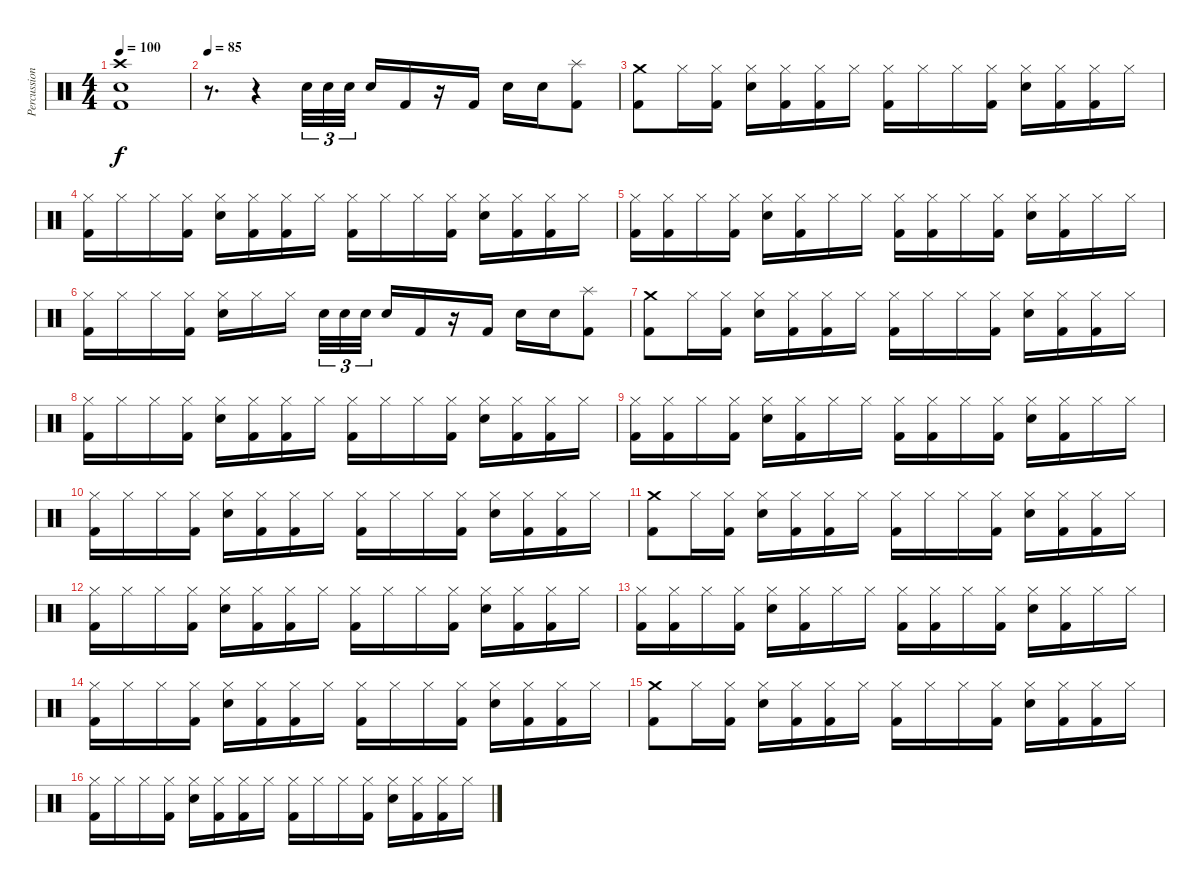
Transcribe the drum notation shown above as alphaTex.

\track ("Percussion" "Percussion") {instrument percussion}
\staff {score}
\articulation defaults
\ts (4 4)
\tempo 100
\clef neutral
\ks c
("Crash high (hit)" "Snare (hit) 2" "Kick (hit) 2").1{dy f} |
\tempo 85
r.8{d} r.4 "Electric Snare (hit)".32{tu (3 2)} "Electric Snare (hit)".32{tu (3 2)} "Electric Snare (hit)".32{tu (3 2)} "Electric Snare (hit)".16 "Kick (hit) 2".16 r.16 "Kick (hit) 2".16 "Electric Snare (hit)".16 "Electric Snare (hit)".16 ("Splash (hit)" "Kick (hit) 2").8 |
("Crash medium (hit)" "Kick (hit) 2").8 "Hi-Hat (closed)".16 ("Hi-Hat (closed)" "Kick (hit) 2").16 ("Hi-Hat (closed)" "Electric Snare (hit)").16 ("Hi-Hat (closed)" "Kick (hit) 2").16 ("Hi-Hat (closed)" "Kick (hit) 2").16 "Hi-Hat (closed)".16 ("Hi-Hat (closed)" "Kick (hit) 2").16 "Hi-Hat (closed)".16 "Hi-Hat (closed)".16 ("Hi-Hat (closed)" "Kick (hit) 2").16 ("Hi-Hat (closed)" "Electric Snare (hit)").16 ("Hi-Hat (closed)" "Kick (hit) 2").16 ("Hi-Hat (closed)" "Kick (hit) 2").16 "Hi-Hat (closed)".16 |
("Hi-Hat (closed)" "Kick (hit) 2").16 "Hi-Hat (closed)".16 "Hi-Hat (closed)".16 ("Hi-Hat (closed)" "Kick (hit) 2").16 ("Hi-Hat (closed)" "Electric Snare (hit)").16 ("Hi-Hat (closed)" "Kick (hit) 2").16 ("Hi-Hat (closed)" "Kick (hit) 2").16 "Hi-Hat (closed)".16 ("Hi-Hat (closed)" "Kick (hit) 2").16 "Hi-Hat (closed)".16 "Hi-Hat (closed)".16 ("Hi-Hat (closed)" "Kick (hit) 2").16 ("Hi-Hat (closed)" "Electric Snare (hit)").16 ("Hi-Hat (closed)" "Kick (hit) 2").16 ("Hi-Hat (closed)" "Kick (hit) 2").16 "Hi-Hat (closed)".16 |
("Hi-Hat (closed)" "Kick (hit) 2").16 ("Hi-Hat (closed)" "Kick (hit) 2").16 "Hi-Hat (closed)".16 ("Hi-Hat (closed)" "Kick (hit) 2").16 ("Hi-Hat (closed)" "Electric Snare (hit)").16 ("Hi-Hat (closed)" "Kick (hit) 2").16 "Hi-Hat (closed)".16 "Hi-Hat (closed)".16 ("Hi-Hat (closed)" "Kick (hit) 2").16 ("Hi-Hat (closed)" "Kick (hit) 2").16 "Hi-Hat (closed)".16 ("Hi-Hat (closed)" "Kick (hit) 2").16 ("Hi-Hat (closed)" "Electric Snare (hit)").16 ("Hi-Hat (closed)" "Kick (hit) 2").16 "Hi-Hat (closed)".16 "Hi-Hat (closed)".16 |
("Hi-Hat (closed)" "Kick (hit) 2").16 "Hi-Hat (closed)".16 "Hi-Hat (closed)".16 ("Hi-Hat (closed)" "Kick (hit) 2").16 ("Hi-Hat (closed)" "Electric Snare (hit)").16 "Hi-Hat (closed)".16 "Hi-Hat (closed)".16 "Electric Snare (hit)".32{tu (3 2)} "Electric Snare (hit)".32{tu (3 2)} "Electric Snare (hit)".32{tu (3 2)} "Electric Snare (hit)".16 "Kick (hit) 2".16 r.16 "Kick (hit) 2".16 "Electric Snare (hit)".16 "Electric Snare (hit)".16 ("Splash (hit)" "Kick (hit) 2").8 |
("Crash medium (hit)" "Kick (hit) 2").8 "Hi-Hat (closed)".16 ("Hi-Hat (closed)" "Kick (hit) 2").16 ("Hi-Hat (closed)" "Electric Snare (hit)").16 ("Hi-Hat (closed)" "Kick (hit) 2").16 ("Hi-Hat (closed)" "Kick (hit) 2").16 "Hi-Hat (closed)".16 ("Hi-Hat (closed)" "Kick (hit) 2").16 "Hi-Hat (closed)".16 "Hi-Hat (closed)".16 ("Hi-Hat (closed)" "Kick (hit) 2").16 ("Hi-Hat (closed)" "Electric Snare (hit)").16 ("Hi-Hat (closed)" "Kick (hit) 2").16 ("Hi-Hat (closed)" "Kick (hit) 2").16 "Hi-Hat (closed)".16 |
("Hi-Hat (closed)" "Kick (hit) 2").16 "Hi-Hat (closed)".16 "Hi-Hat (closed)".16 ("Hi-Hat (closed)" "Kick (hit) 2").16 ("Hi-Hat (closed)" "Electric Snare (hit)").16 ("Hi-Hat (closed)" "Kick (hit) 2").16 ("Hi-Hat (closed)" "Kick (hit) 2").16 "Hi-Hat (closed)".16 ("Hi-Hat (closed)" "Kick (hit) 2").16 "Hi-Hat (closed)".16 "Hi-Hat (closed)".16 ("Hi-Hat (closed)" "Kick (hit) 2").16 ("Hi-Hat (closed)" "Electric Snare (hit)").16 ("Hi-Hat (closed)" "Kick (hit) 2").16 ("Hi-Hat (closed)" "Kick (hit) 2").16 "Hi-Hat (closed)".16 |
("Hi-Hat (closed)" "Kick (hit) 2").16 ("Hi-Hat (closed)" "Kick (hit) 2").16 "Hi-Hat (closed)".16 ("Hi-Hat (closed)" "Kick (hit) 2").16 ("Hi-Hat (closed)" "Electric Snare (hit)").16 ("Hi-Hat (closed)" "Kick (hit) 2").16 "Hi-Hat (closed)".16 "Hi-Hat (closed)".16 ("Hi-Hat (closed)" "Kick (hit) 2").16 ("Hi-Hat (closed)" "Kick (hit) 2").16 "Hi-Hat (closed)".16 ("Hi-Hat (closed)" "Kick (hit) 2").16 ("Hi-Hat (closed)" "Electric Snare (hit)").16 ("Hi-Hat (closed)" "Kick (hit) 2").16 "Hi-Hat (closed)".16 "Hi-Hat (closed)".16 |
("Hi-Hat (closed)" "Kick (hit) 2").16 "Hi-Hat (closed)".16 "Hi-Hat (closed)".16 ("Hi-Hat (closed)" "Kick (hit) 2").16 ("Hi-Hat (closed)" "Electric Snare (hit)").16 ("Hi-Hat (closed)" "Kick (hit) 2").16 ("Hi-Hat (closed)" "Kick (hit) 2").16 "Hi-Hat (closed)".16 ("Hi-Hat (closed)" "Kick (hit) 2").16 "Hi-Hat (closed)".16 "Hi-Hat (closed)".16 ("Hi-Hat (closed)" "Kick (hit) 2").16 ("Hi-Hat (closed)" "Electric Snare (hit)").16 ("Hi-Hat (closed)" "Kick (hit) 2").16 ("Hi-Hat (closed)" "Kick (hit) 2").16 "Hi-Hat (closed)".16 |
("Crash medium (hit)" "Kick (hit) 2").8 "Hi-Hat (closed)".16 ("Hi-Hat (closed)" "Kick (hit) 2").16 ("Hi-Hat (closed)" "Electric Snare (hit)").16 ("Hi-Hat (closed)" "Kick (hit) 2").16 ("Hi-Hat (closed)" "Kick (hit) 2").16 "Hi-Hat (closed)".16 ("Hi-Hat (closed)" "Kick (hit) 2").16 "Hi-Hat (closed)".16 "Hi-Hat (closed)".16 ("Hi-Hat (closed)" "Kick (hit) 2").16 ("Hi-Hat (closed)" "Electric Snare (hit)").16 ("Hi-Hat (closed)" "Kick (hit) 2").16 ("Hi-Hat (closed)" "Kick (hit) 2").16 "Hi-Hat (closed)".16 |
("Hi-Hat (closed)" "Kick (hit) 2").16 "Hi-Hat (closed)".16 "Hi-Hat (closed)".16 ("Hi-Hat (closed)" "Kick (hit) 2").16 ("Hi-Hat (closed)" "Electric Snare (hit)").16 ("Hi-Hat (closed)" "Kick (hit) 2").16 ("Hi-Hat (closed)" "Kick (hit) 2").16 "Hi-Hat (closed)".16 ("Hi-Hat (closed)" "Kick (hit) 2").16 "Hi-Hat (closed)".16 "Hi-Hat (closed)".16 ("Hi-Hat (closed)" "Kick (hit) 2").16 ("Hi-Hat (closed)" "Electric Snare (hit)").16 ("Hi-Hat (closed)" "Kick (hit) 2").16 ("Hi-Hat (closed)" "Kick (hit) 2").16 "Hi-Hat (closed)".16 |
("Hi-Hat (closed)" "Kick (hit) 2").16 ("Hi-Hat (closed)" "Kick (hit) 2").16 "Hi-Hat (closed)".16 ("Hi-Hat (closed)" "Kick (hit) 2").16 ("Hi-Hat (closed)" "Electric Snare (hit)").16 ("Hi-Hat (closed)" "Kick (hit) 2").16 "Hi-Hat (closed)".16 "Hi-Hat (closed)".16 ("Hi-Hat (closed)" "Kick (hit) 2").16 ("Hi-Hat (closed)" "Kick (hit) 2").16 "Hi-Hat (closed)".16 ("Hi-Hat (closed)" "Kick (hit) 2").16 ("Hi-Hat (closed)" "Electric Snare (hit)").16 ("Hi-Hat (closed)" "Kick (hit) 2").16 "Hi-Hat (closed)".16 "Hi-Hat (closed)".16 |
("Hi-Hat (closed)" "Kick (hit) 2").16 "Hi-Hat (closed)".16 "Hi-Hat (closed)".16 ("Hi-Hat (closed)" "Kick (hit) 2").16 ("Hi-Hat (closed)" "Electric Snare (hit)").16 ("Hi-Hat (closed)" "Kick (hit) 2").16 ("Hi-Hat (closed)" "Kick (hit) 2").16 "Hi-Hat (closed)".16 ("Hi-Hat (closed)" "Kick (hit) 2").16 "Hi-Hat (closed)".16 "Hi-Hat (closed)".16 ("Hi-Hat (closed)" "Kick (hit) 2").16 ("Hi-Hat (closed)" "Electric Snare (hit)").16 ("Hi-Hat (closed)" "Kick (hit) 2").16 ("Hi-Hat (closed)" "Kick (hit) 2").16 "Hi-Hat (closed)".16 |
("Crash medium (hit)" "Kick (hit) 2").8 "Hi-Hat (closed)".16 ("Hi-Hat (closed)" "Kick (hit) 2").16 ("Hi-Hat (closed)" "Electric Snare (hit)").16 ("Hi-Hat (closed)" "Kick (hit) 2").16 ("Hi-Hat (closed)" "Kick (hit) 2").16 "Hi-Hat (closed)".16 ("Hi-Hat (closed)" "Kick (hit) 2").16 "Hi-Hat (closed)".16 "Hi-Hat (closed)".16 ("Hi-Hat (closed)" "Kick (hit) 2").16 ("Hi-Hat (closed)" "Electric Snare (hit)").16 ("Hi-Hat (closed)" "Kick (hit) 2").16 ("Hi-Hat (closed)" "Kick (hit) 2").16 "Hi-Hat (closed)".16 |
("Hi-Hat (closed)" "Kick (hit) 2").16 "Hi-Hat (closed)".16 "Hi-Hat (closed)".16 ("Hi-Hat (closed)" "Kick (hit) 2").16 ("Hi-Hat (closed)" "Electric Snare (hit)").16 ("Hi-Hat (closed)" "Kick (hit) 2").16 ("Hi-Hat (closed)" "Kick (hit) 2").16 "Hi-Hat (closed)".16 ("Hi-Hat (closed)" "Kick (hit) 2").16 "Hi-Hat (closed)".16 "Hi-Hat (closed)".16 ("Hi-Hat (closed)" "Kick (hit) 2").16 ("Hi-Hat (closed)" "Electric Snare (hit)").16 ("Hi-Hat (closed)" "Kick (hit) 2").16 ("Hi-Hat (closed)" "Kick (hit) 2").16 "Hi-Hat (closed)".16
